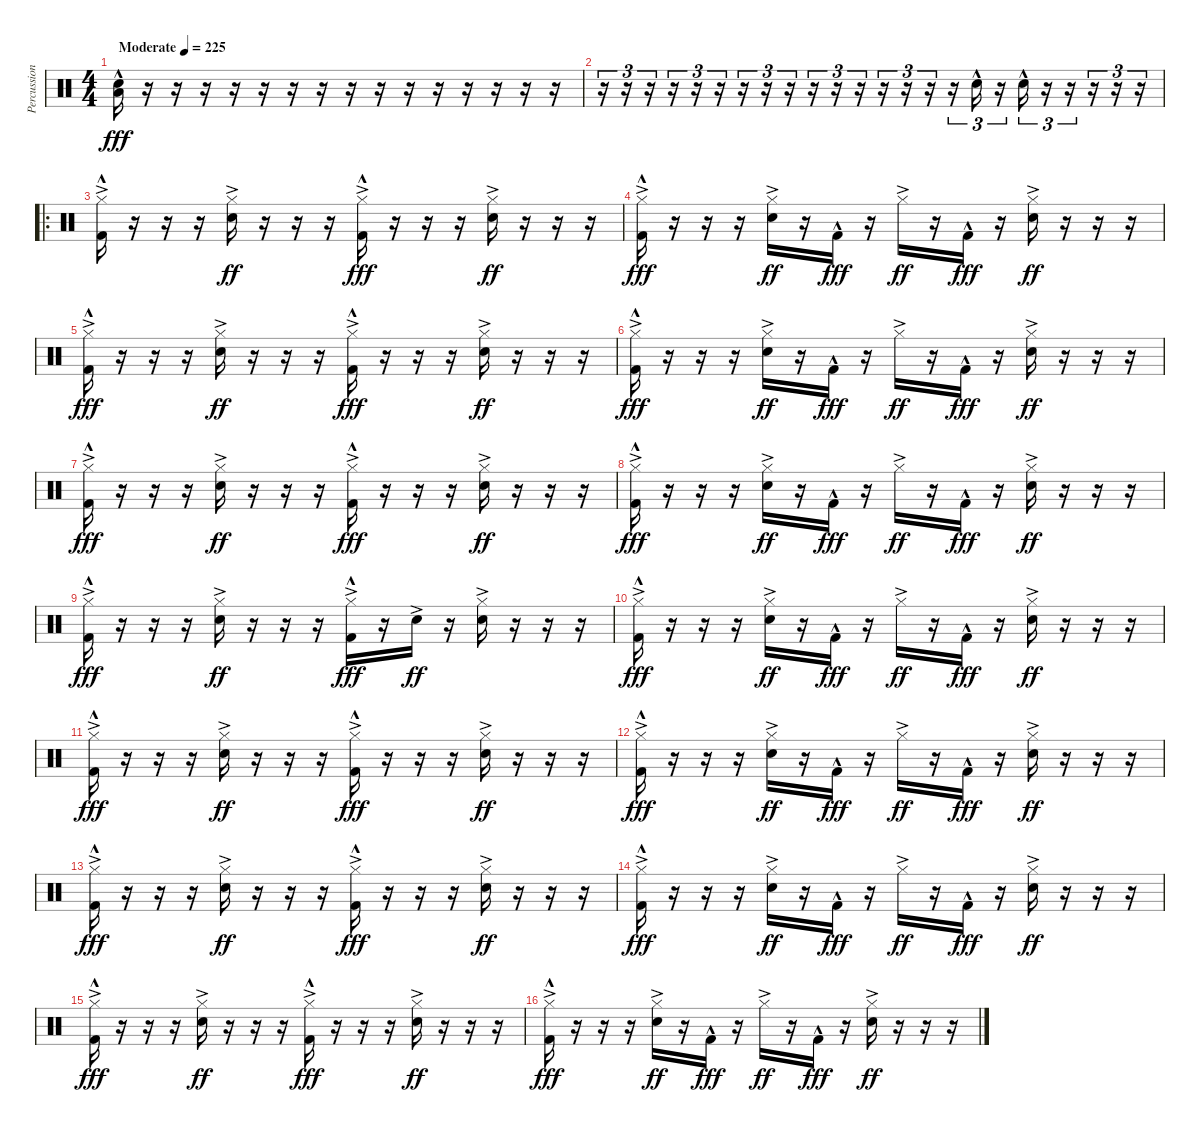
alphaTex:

\track ("Percussion" "Percussion") {instrument percussion bank 2}
\staff {score}
\articulation defaults
\ts (4 4)
\tempo (225 "Moderate")
\clef neutral
\ks c
("Low Floor Tom (hit)"{hac} "Snare (hit) 2"{hac}).16{dy fff} r.16 r.16 r.16 r.16 r.16 r.16 r.16 r.16 r.16 r.16 r.16 r.16 r.16 r.16 r.16 |
r.16{tu (3 2)} r.16{tu (3 2)} r.16{tu (3 2)} r.16{tu (3 2)} r.16{tu (3 2)} r.16{tu (3 2)} r.16{tu (3 2)} r.16{tu (3 2)} r.16{tu (3 2)} r.16{tu (3 2)} r.16{tu (3 2)} r.16{tu (3 2)} r.16{tu (3 2)} r.16{tu (3 2)} r.16{tu (3 2)} r.16{tu (3 2)} "Snare (hit) 2"{hac}.16{tu (3 2)} r.16{tu (3 2)} "Snare (hit) 2"{hac}.16{tu (3 2)} r.16{tu (3 2)} r.16{tu (3 2)} r.16{tu (3 2)} r.16{tu (3 2)} r.16{tu (3 2)} |
\ro
("Hi-Hat (closed)"{ac} "Kick (hit) 2"{hac}).16 r.16 r.16 r.16 ("Hi-Hat (closed)"{ac} "Snare (hit) 2"{ac}).16{dy ff} r.16 r.16 r.16 ("Hi-Hat (closed)"{ac} "Kick (hit) 2"{hac}).16{dy fff} r.16 r.16 r.16 ("Hi-Hat (closed)"{ac} "Snare (hit) 2"{ac}).16{dy ff} r.16 r.16 r.16 |
("Hi-Hat (closed)"{ac} "Kick (hit) 2"{hac}).16{dy fff} r.16 r.16 r.16 ("Hi-Hat (closed)"{ac} "Snare (hit) 2"{ac}).16{dy ff} r.16 "Kick (hit) 2"{hac}.16{dy fff} r.16 "Hi-Hat (closed)"{ac}.16{dy ff} r.16 "Kick (hit) 2"{hac}.16{dy fff} r.16 ("Hi-Hat (closed)"{ac} "Snare (hit) 2"{ac}).16{dy ff} r.16 r.16 r.16 |
("Hi-Hat (closed)"{ac} "Kick (hit) 2"{hac}).16{dy fff} r.16 r.16 r.16 ("Hi-Hat (closed)"{ac} "Snare (hit) 2"{ac}).16{dy ff} r.16 r.16 r.16 ("Hi-Hat (closed)"{ac} "Kick (hit) 2"{hac}).16{dy fff} r.16 r.16 r.16 ("Hi-Hat (closed)"{ac} "Snare (hit) 2"{ac}).16{dy ff} r.16 r.16 r.16 |
("Hi-Hat (closed)"{ac} "Kick (hit) 2"{hac}).16{dy fff} r.16 r.16 r.16 ("Hi-Hat (closed)"{ac} "Snare (hit) 2"{ac}).16{dy ff} r.16 "Kick (hit) 2"{hac}.16{dy fff} r.16 "Hi-Hat (closed)"{ac}.16{dy ff} r.16 "Kick (hit) 2"{hac}.16{dy fff} r.16 ("Hi-Hat (closed)"{ac} "Snare (hit) 2"{ac}).16{dy ff} r.16 r.16 r.16 |
("Hi-Hat (closed)"{ac} "Kick (hit) 2"{hac}).16{dy fff} r.16 r.16 r.16 ("Hi-Hat (closed)"{ac} "Snare (hit) 2"{ac}).16{dy ff} r.16 r.16 r.16 ("Hi-Hat (closed)"{ac} "Kick (hit) 2"{hac}).16{dy fff} r.16 r.16 r.16 ("Hi-Hat (closed)"{ac} "Snare (hit) 2"{ac}).16{dy ff} r.16 r.16 r.16 |
("Hi-Hat (closed)"{ac} "Kick (hit) 2"{hac}).16{dy fff} r.16 r.16 r.16 ("Hi-Hat (closed)"{ac} "Snare (hit) 2"{ac}).16{dy ff} r.16 "Kick (hit) 2"{hac}.16{dy fff} r.16 "Hi-Hat (closed)"{ac}.16{dy ff} r.16 "Kick (hit) 2"{hac}.16{dy fff} r.16 ("Hi-Hat (closed)"{ac} "Snare (hit) 2"{ac}).16{dy ff} r.16 r.16 r.16 |
("Hi-Hat (closed)"{ac} "Kick (hit) 2"{hac}).16{dy fff} r.16 r.16 r.16 ("Hi-Hat (closed)"{ac} "Snare (hit) 2"{ac}).16{dy ff} r.16 r.16 r.16 ("Hi-Hat (closed)"{ac} "Kick (hit) 2"{hac}).16{dy fff} r.16 "Snare (hit) 2"{ac}.16{dy ff} r.16 ("Hi-Hat (closed)"{ac} "Snare (hit) 2"{ac}).16 r.16 r.16 r.16 |
("Hi-Hat (closed)"{ac} "Kick (hit) 2"{hac}).16{dy fff} r.16 r.16 r.16 ("Hi-Hat (closed)"{ac} "Snare (hit) 2"{ac}).16{dy ff} r.16 "Kick (hit) 2"{hac}.16{dy fff} r.16 "Hi-Hat (closed)"{ac}.16{dy ff} r.16 "Kick (hit) 2"{hac}.16{dy fff} r.16 ("Hi-Hat (closed)"{ac} "Snare (hit) 2"{ac}).16{dy ff} r.16 r.16 r.16 |
("Hi-Hat (closed)"{ac} "Kick (hit) 2"{hac}).16{dy fff} r.16 r.16 r.16 ("Hi-Hat (closed)"{ac} "Snare (hit) 2"{ac}).16{dy ff} r.16 r.16 r.16 ("Hi-Hat (closed)"{ac} "Kick (hit) 2"{hac}).16{dy fff} r.16 r.16 r.16 ("Hi-Hat (closed)"{ac} "Snare (hit) 2"{ac}).16{dy ff} r.16 r.16 r.16 |
("Hi-Hat (closed)"{ac} "Kick (hit) 2"{hac}).16{dy fff} r.16 r.16 r.16 ("Hi-Hat (closed)"{ac} "Snare (hit) 2"{ac}).16{dy ff} r.16 "Kick (hit) 2"{hac}.16{dy fff} r.16 "Hi-Hat (closed)"{ac}.16{dy ff} r.16 "Kick (hit) 2"{hac}.16{dy fff} r.16 ("Hi-Hat (closed)"{ac} "Snare (hit) 2"{ac}).16{dy ff} r.16 r.16 r.16 |
("Hi-Hat (closed)"{ac} "Kick (hit) 2"{hac}).16{dy fff} r.16 r.16 r.16 ("Hi-Hat (closed)"{ac} "Snare (hit) 2"{ac}).16{dy ff} r.16 r.16 r.16 ("Hi-Hat (closed)"{ac} "Kick (hit) 2"{hac}).16{dy fff} r.16 r.16 r.16 ("Hi-Hat (closed)"{ac} "Snare (hit) 2"{ac}).16{dy ff} r.16 r.16 r.16 |
("Hi-Hat (closed)"{ac} "Kick (hit) 2"{hac}).16{dy fff} r.16 r.16 r.16 ("Hi-Hat (closed)"{ac} "Snare (hit) 2"{ac}).16{dy ff} r.16 "Kick (hit) 2"{hac}.16{dy fff} r.16 "Hi-Hat (closed)"{ac}.16{dy ff} r.16 "Kick (hit) 2"{hac}.16{dy fff} r.16 ("Hi-Hat (closed)"{ac} "Snare (hit) 2"{ac}).16{dy ff} r.16 r.16 r.16 |
("Hi-Hat (closed)"{ac} "Kick (hit) 2"{hac}).16{dy fff} r.16 r.16 r.16 ("Hi-Hat (closed)"{ac} "Snare (hit) 2"{ac}).16{dy ff} r.16 r.16 r.16 ("Hi-Hat (closed)"{ac} "Kick (hit) 2"{hac}).16{dy fff} r.16 r.16 r.16 ("Hi-Hat (closed)"{ac} "Snare (hit) 2"{ac}).16{dy ff} r.16 r.16 r.16 |
("Hi-Hat (closed)"{ac} "Kick (hit) 2"{hac}).16{dy fff} r.16 r.16 r.16 ("Hi-Hat (closed)"{ac} "Snare (hit) 2"{ac}).16{dy ff} r.16 "Kick (hit) 2"{hac}.16{dy fff} r.16 "Hi-Hat (closed)"{ac}.16{dy ff} r.16 "Kick (hit) 2"{hac}.16{dy fff} r.16 ("Hi-Hat (closed)"{ac} "Snare (hit) 2"{ac}).16{dy ff} r.16 r.16 r.16
